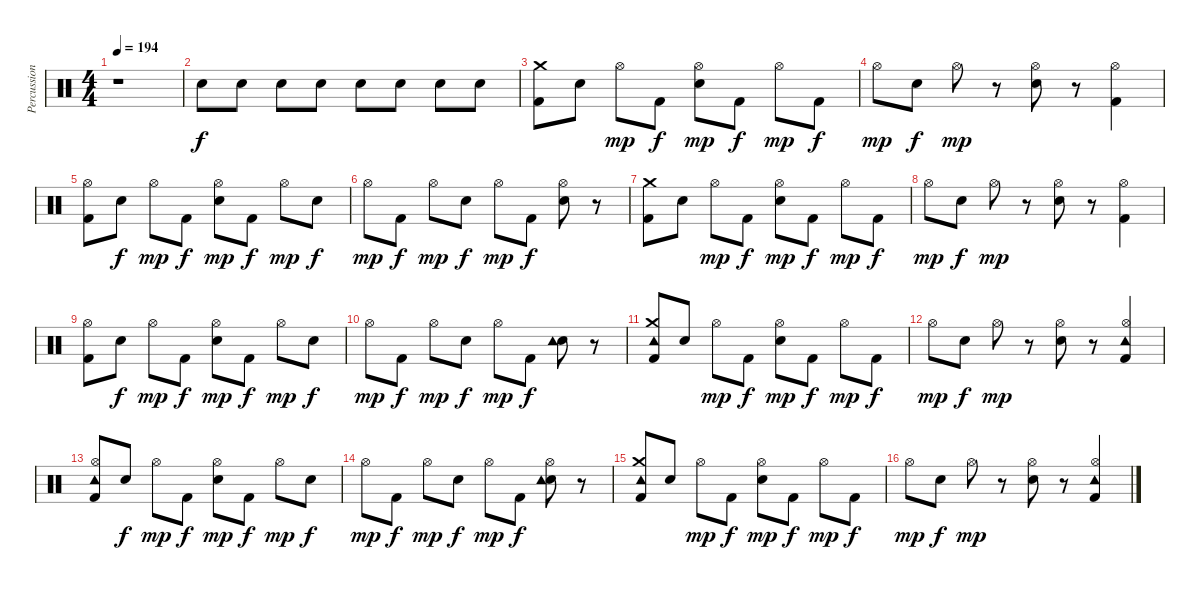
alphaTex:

\track ("Percussions" "Percussion") {instrument percussion}
\staff {score}
\articulation defaults
\ts (4 4)
\tempo 194
\clef neutral
\ks c
r.1{dy mp} |
"Electric Snare (hit)".8{dy f} "Electric Snare (hit)".8 "Electric Snare (hit)".8 "Electric Snare (hit)".8 "Electric Snare (hit)".8 "Electric Snare (hit)".8 "Electric Snare (hit)".8 "Electric Snare (hit)".8 |
("Kick (hit) 2" "Crash medium (hit)").8 "Electric Snare (hit)".8 "Hi-Hat (open)".8{dy mp} "Kick (hit) 2".8{dy f} ("Electric Snare (hit)" "Hi-Hat (open)").8{dy mp} "Kick (hit) 2".8{dy f} "Hi-Hat (open)".8{dy mp} "Kick (hit) 2".8{dy f} |
"Hi-Hat (open)".8{dy mp} "Electric Snare (hit)".8{dy f} "Hi-Hat (open)".8{dy mp} r.8 ("Electric Snare (hit)" "Hi-Hat (open)").8 r.8 ("Kick (hit) 2" "Hi-Hat (open)").4 |
("Kick (hit) 2" "Hi-Hat (open)").8 "Electric Snare (hit)".8{dy f} "Hi-Hat (open)".8{dy mp} "Kick (hit) 2".8{dy f} ("Electric Snare (hit)" "Hi-Hat (open)").8{dy mp} "Kick (hit) 2".8{dy f} "Hi-Hat (open)".8{dy mp} "Electric Snare (hit)".8{dy f} |
"Hi-Hat (open)".8{dy mp} "Kick (hit) 2".8{dy f} "Hi-Hat (open)".8{dy mp} "Electric Snare (hit)".8{dy f} "Hi-Hat (open)".8{dy mp} "Kick (hit) 2".8{dy f} ("Electric Snare (hit)" "Hi-Hat (open)").8 r.8 |
("Kick (hit) 2" "Crash medium (hit)").8 "Electric Snare (hit)".8 "Hi-Hat (open)".8{dy mp} "Kick (hit) 2".8{dy f} ("Electric Snare (hit)" "Hi-Hat (open)").8{dy mp} "Kick (hit) 2".8{dy f} "Hi-Hat (open)".8{dy mp} "Kick (hit) 2".8{dy f} |
"Hi-Hat (open)".8{dy mp} "Electric Snare (hit)".8{dy f} "Hi-Hat (open)".8{dy mp} r.8 ("Electric Snare (hit)" "Hi-Hat (open)").8 r.8 ("Kick (hit) 2" "Hi-Hat (open)").4 |
("Kick (hit) 2" "Hi-Hat (open)").8 "Electric Snare (hit)".8{dy f} "Hi-Hat (open)".8{dy mp} "Kick (hit) 2".8{dy f} ("Electric Snare (hit)" "Hi-Hat (open)").8{dy mp} "Kick (hit) 2".8{dy f} "Hi-Hat (open)".8{dy mp} "Electric Snare (hit)".8{dy f} |
"Hi-Hat (open)".8{dy mp} "Kick (hit) 2".8{dy f} "Hi-Hat (open)".8{dy mp} "Electric Snare (hit)".8{dy f} "Hi-Hat (open)".8{dy mp} "Kick (hit) 2".8{dy f} ("Electric Snare (hit)" "Tambourine (hit)").8 r.8 |
("Kick (hit) 2" "Crash medium (hit)" "Tambourine (hit)").8 "Electric Snare (hit)".8 "Hi-Hat (open)".8{dy mp} "Kick (hit) 2".8{dy f} ("Electric Snare (hit)" "Hi-Hat (open)").8{dy mp} "Kick (hit) 2".8{dy f} "Hi-Hat (open)".8{dy mp} "Kick (hit) 2".8{dy f} |
"Hi-Hat (open)".8{dy mp} "Electric Snare (hit)".8{dy f} "Hi-Hat (open)".8{dy mp} r.8 ("Electric Snare (hit)" "Hi-Hat (open)").8 r.8 ("Kick (hit) 2" "Hi-Hat (open)" "Tambourine (hit)").4 |
("Kick (hit) 2" "Hi-Hat (open)" "Tambourine (hit)").8 "Electric Snare (hit)".8{dy f} "Hi-Hat (open)".8{dy mp} "Kick (hit) 2".8{dy f} ("Electric Snare (hit)" "Hi-Hat (open)").8{dy mp} "Kick (hit) 2".8{dy f} "Hi-Hat (open)".8{dy mp} "Electric Snare (hit)".8{dy f} |
"Hi-Hat (open)".8{dy mp} "Kick (hit) 2".8{dy f} "Hi-Hat (open)".8{dy mp} "Electric Snare (hit)".8{dy f} "Hi-Hat (open)".8{dy mp} "Kick (hit) 2".8{dy f} ("Electric Snare (hit)" "Hi-Hat (open)" "Tambourine (hit)").8 r.8 |
("Kick (hit) 2" "Crash medium (hit)" "Tambourine (hit)").8 "Electric Snare (hit)".8 "Hi-Hat (open)".8{dy mp} "Kick (hit) 2".8{dy f} ("Electric Snare (hit)" "Hi-Hat (open)").8{dy mp} "Kick (hit) 2".8{dy f} "Hi-Hat (open)".8{dy mp} "Kick (hit) 2".8{dy f} |
"Hi-Hat (open)".8{dy mp} "Electric Snare (hit)".8{dy f} "Hi-Hat (open)".8{dy mp} r.8 ("Electric Snare (hit)" "Hi-Hat (open)").8 r.8 ("Kick (hit) 2" "Hi-Hat (open)" "Tambourine (hit)").4
